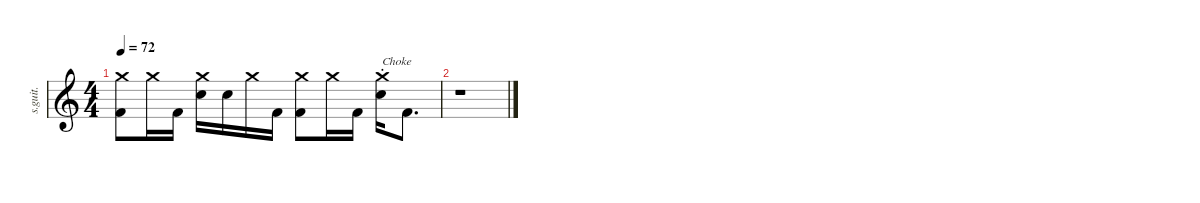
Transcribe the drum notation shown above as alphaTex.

\defaultSystemsLayout 4
\hideDynamics
\bracketExtendMode nobrackets
\track ("Abe Cunningham" "s.guit.") {instrument percussion}
\staff {score}
\articulation defaults
\ts (4 4)
\tempo 72
\clef g2
\ks c
("Crash medium (hit)" "Kick (hit) 2").8{lyrics (0 "") lyrics (1 "") lyrics (2 "") lyrics (3 "") lyrics (4 "") dy fff} "Crash medium (hit)".16{lyrics (0 "") lyrics (1 "") lyrics (2 "") lyrics (3 "") lyrics (4 "")} "Kick (hit) 2".16{lyrics (0 "") lyrics (1 "") lyrics (2 "") lyrics (3 "") lyrics (4 "")} ("Crash medium (hit)" "Snare (hit) 2").16{lyrics (0 "") lyrics (1 "") lyrics (2 "") lyrics (3 "") lyrics (4 "")} "Snare (hit) 2".16{lyrics (0 "") lyrics (1 "") lyrics (2 "") lyrics (3 "") lyrics (4 "")} "Crash medium (hit)".16{lyrics (0 "") lyrics (1 "") lyrics (2 "") lyrics (3 "") lyrics (4 "")} "Kick (hit) 2".16{lyrics (0 "") lyrics (1 "") lyrics (2 "") lyrics (3 "") lyrics (4 "")} ("Crash medium (hit)" "Kick (hit) 2").8{lyrics (0 "") lyrics (1 "") lyrics (2 "") lyrics (3 "") lyrics (4 "")} "Crash medium (hit)".16{lyrics (0 "") lyrics (1 "") lyrics (2 "") lyrics (3 "") lyrics (4 "")} "Kick (hit) 2".16{lyrics (0 "") lyrics (1 "") lyrics (2 "") lyrics (3 "") lyrics (4 "")} ("Crash medium (choke)" "Snare (hit) 2").16{txt "Choke" lyrics (0 "") lyrics (1 "") lyrics (2 "") lyrics (3 "") lyrics (4 "")} "Kick (hit) 2".8{d lyrics (0 "") lyrics (1 "") lyrics (2 "") lyrics (3 "") lyrics (4 "")} |
r.1
